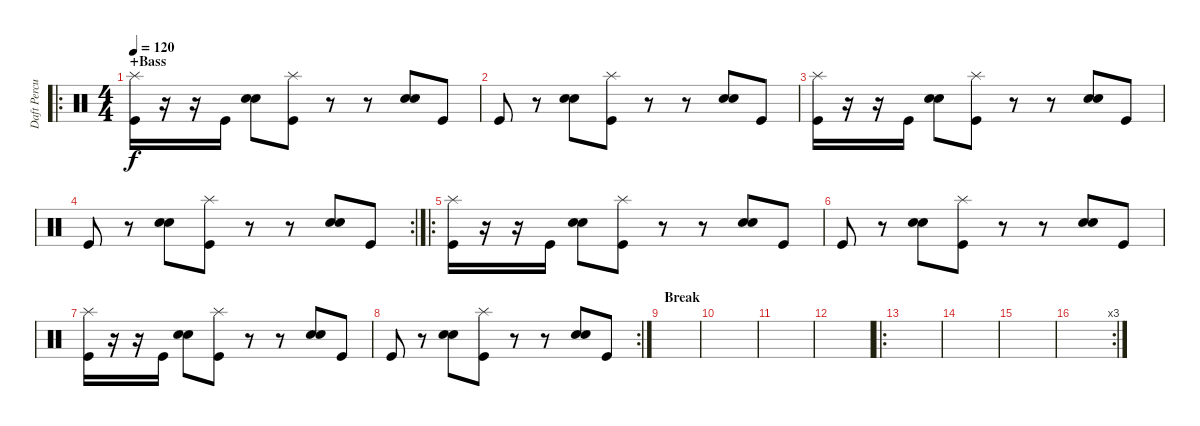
\track ("Daft Percussion 1" "Daft Percu") {instrument percussion}
\staff {score}
\articulation defaults
\ro
\ts (4 4)
\section ("" "+Bass")
\tempo 120
\clef neutral
\ks c
("Splash (hit)" "Kick (hit)").16{dy f} r.16 r.16 "Kick (hit)".16 ("Hand Clap (hit)" "Electric Snare (hit)").8 ("Splash (hit)" "Kick (hit)").8 r.8 r.8 ("Hand Clap (hit)" "Electric Snare (hit)").8 "Kick (hit)".8 |
"Kick (hit)".8 r.8 ("Hand Clap (hit)" "Electric Snare (hit)").8 ("Splash (hit)" "Kick (hit)").8 r.8 r.8 ("Hand Clap (hit)" "Electric Snare (hit)").8 "Kick (hit)".8 |
("Splash (hit)" "Kick (hit)").16 r.16 r.16 "Kick (hit)".16 ("Hand Clap (hit)" "Electric Snare (hit)").8 ("Splash (hit)" "Kick (hit)").8 r.8 r.8 ("Hand Clap (hit)" "Electric Snare (hit)").8 "Kick (hit)".8 |
\rc 2 "Kick (hit)".8
r.8 ("Hand Clap (hit)" "Electric Snare (hit)").8 ("Splash (hit)" "Kick (hit)").8 r.8 r.8 ("Hand Clap (hit)" "Electric Snare (hit)").8 "Kick (hit)".8 |
\ro
("Splash (hit)" "Kick (hit)").16 r.16 r.16 "Kick (hit)".16 ("Hand Clap (hit)" "Electric Snare (hit)").8 ("Splash (hit)" "Kick (hit)").8 r.8 r.8 ("Hand Clap (hit)" "Electric Snare (hit)").8 "Kick (hit)".8 |
"Kick (hit)".8 r.8 ("Hand Clap (hit)" "Electric Snare (hit)").8 ("Splash (hit)" "Kick (hit)").8 r.8 r.8 ("Hand Clap (hit)" "Electric Snare (hit)").8 "Kick (hit)".8 |
("Splash (hit)" "Kick (hit)").16 r.16 r.16 "Kick (hit)".16 ("Hand Clap (hit)" "Electric Snare (hit)").8 ("Splash (hit)" "Kick (hit)").8 r.8 r.8 ("Hand Clap (hit)" "Electric Snare (hit)").8 "Kick (hit)".8 |
\rc 2 "Kick (hit)".8
r.8 ("Hand Clap (hit)" "Electric Snare (hit)").8 ("Splash (hit)" "Kick (hit)").8 r.8 r.8 ("Hand Clap (hit)" "Electric Snare (hit)").8 "Kick (hit)".8 |
\section ("" "Break")
|
|
|
|
\ro
|
|
|
\rc 3
